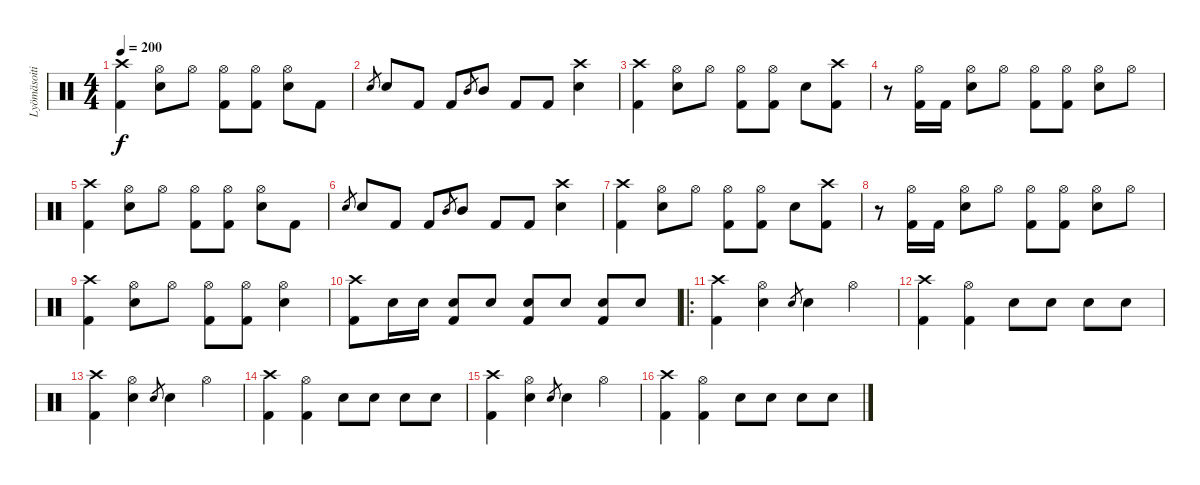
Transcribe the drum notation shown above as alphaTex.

\track ("Lyömäsoitin" "Lyömäsoiti") {instrument percussion}
\staff {score}
\articulation defaults
\ts (4 4)
\tempo 200
\clef neutral
\ks c
("Crash high (hit)" "Kick (hit) 2").4{dy f} ("Hi-Hat (open)" "Snare (hit) 2").8 "Hi-Hat (open)".8 ("Hi-Hat (open)" "Kick (hit) 2").8 ("Hi-Hat (open)" "Kick (hit) 2").8 ("Hi-Hat (open)" "Snare (hit) 2").8 "Kick (hit) 2".8 |
"Snare (hit) 2".8{gr} "Snare (hit) 2".8 "Kick (hit) 2".8 "Kick (hit) 2".8 "Mid Tom (hit)".8{gr} "Mid Tom (hit)".8 "Kick (hit) 2".8 "Kick (hit) 2".8 ("Crash high (hit)" "Snare (hit) 2").4 |
("Crash high (hit)" "Kick (hit) 2").4 ("Hi-Hat (open)" "Snare (hit) 2").8 "Hi-Hat (open)".8 ("Hi-Hat (open)" "Kick (hit) 2").8 ("Hi-Hat (open)" "Kick (hit) 2").8 "Snare (hit) 2".8 ("Crash high (hit)" "Kick (hit) 2").8 |
r.8 ("Hi-Hat (open)" "Kick (hit) 2").16 "Kick (hit) 2".16 ("Hi-Hat (open)" "Snare (hit) 2").8 "Hi-Hat (open)".8 ("Hi-Hat (open)" "Kick (hit) 2").8 ("Hi-Hat (open)" "Kick (hit) 2").8 ("Hi-Hat (open)" "Snare (hit) 2").8 "Hi-Hat (open)".8 |
("Crash high (hit)" "Kick (hit) 2").4 ("Hi-Hat (open)" "Snare (hit) 2").8 "Hi-Hat (open)".8 ("Hi-Hat (open)" "Kick (hit) 2").8 ("Hi-Hat (open)" "Kick (hit) 2").8 ("Hi-Hat (open)" "Snare (hit) 2").8 "Kick (hit) 2".8 |
"Snare (hit) 2".8{gr} "Snare (hit) 2".8 "Kick (hit) 2".8 "Kick (hit) 2".8 "Mid Tom (hit)".8{gr} "Mid Tom (hit)".8 "Kick (hit) 2".8 "Kick (hit) 2".8 ("Crash high (hit)" "Snare (hit) 2").4 |
("Crash high (hit)" "Kick (hit) 2").4 ("Hi-Hat (open)" "Snare (hit) 2").8 "Hi-Hat (open)".8 ("Hi-Hat (open)" "Kick (hit) 2").8 ("Hi-Hat (open)" "Kick (hit) 2").8 "Snare (hit) 2".8 ("Crash high (hit)" "Kick (hit) 2").8 |
r.8 ("Hi-Hat (open)" "Kick (hit) 2").16 "Kick (hit) 2".16 ("Hi-Hat (open)" "Snare (hit) 2").8 "Hi-Hat (open)".8 ("Hi-Hat (open)" "Kick (hit) 2").8 ("Hi-Hat (open)" "Kick (hit) 2").8 ("Hi-Hat (open)" "Snare (hit) 2").8 "Hi-Hat (open)".8 |
("Crash high (hit)" "Kick (hit) 2").4 ("Hi-Hat (open)" "Snare (hit) 2").8 "Hi-Hat (open)".8 ("Hi-Hat (open)" "Kick (hit) 2").8 ("Hi-Hat (open)" "Kick (hit) 2").8 ("Hi-Hat (open)" "Snare (hit) 2").4 |
("Crash high (hit)" "Kick (hit) 2").8 "Snare (hit) 2".16 "Snare (hit) 2".16 ("Snare (hit) 2" "Kick (hit) 2").8 "Snare (hit) 2".8 ("Snare (hit) 2" "Kick (hit) 2").8 "Snare (hit) 2".8 ("Snare (hit) 2" "Kick (hit) 2").8 "Snare (hit) 2".8 |
\ro
("Crash high (hit)" "Kick (hit) 2").4 ("Hi-Hat (open)" "Snare (hit) 2").4 "Snare (hit) 2".8{gr} "Snare (hit) 2".4 "Hi-Hat (open)".4 |
("Crash high (hit)" "Kick (hit) 2").4 ("Hi-Hat (open)" "Kick (hit) 2").4 "Snare (hit) 2".8 "Snare (hit) 2".8 "Snare (hit) 2".8 "Snare (hit) 2".8 |
("Crash high (hit)" "Kick (hit) 2").4 ("Hi-Hat (open)" "Snare (hit) 2").4 "Snare (hit) 2".8{gr} "Snare (hit) 2".4 "Hi-Hat (open)".4 |
("Crash high (hit)" "Kick (hit) 2").4 ("Hi-Hat (open)" "Kick (hit) 2").4 "Snare (hit) 2".8 "Snare (hit) 2".8 "Snare (hit) 2".8 "Snare (hit) 2".8 |
("Crash high (hit)" "Kick (hit) 2").4 ("Hi-Hat (open)" "Snare (hit) 2").4 "Snare (hit) 2".8{gr} "Snare (hit) 2".4 "Hi-Hat (open)".4 |
("Crash high (hit)" "Kick (hit) 2").4 ("Hi-Hat (open)" "Kick (hit) 2").4 "Snare (hit) 2".8 "Snare (hit) 2".8 "Snare (hit) 2".8 "Snare (hit) 2".8
